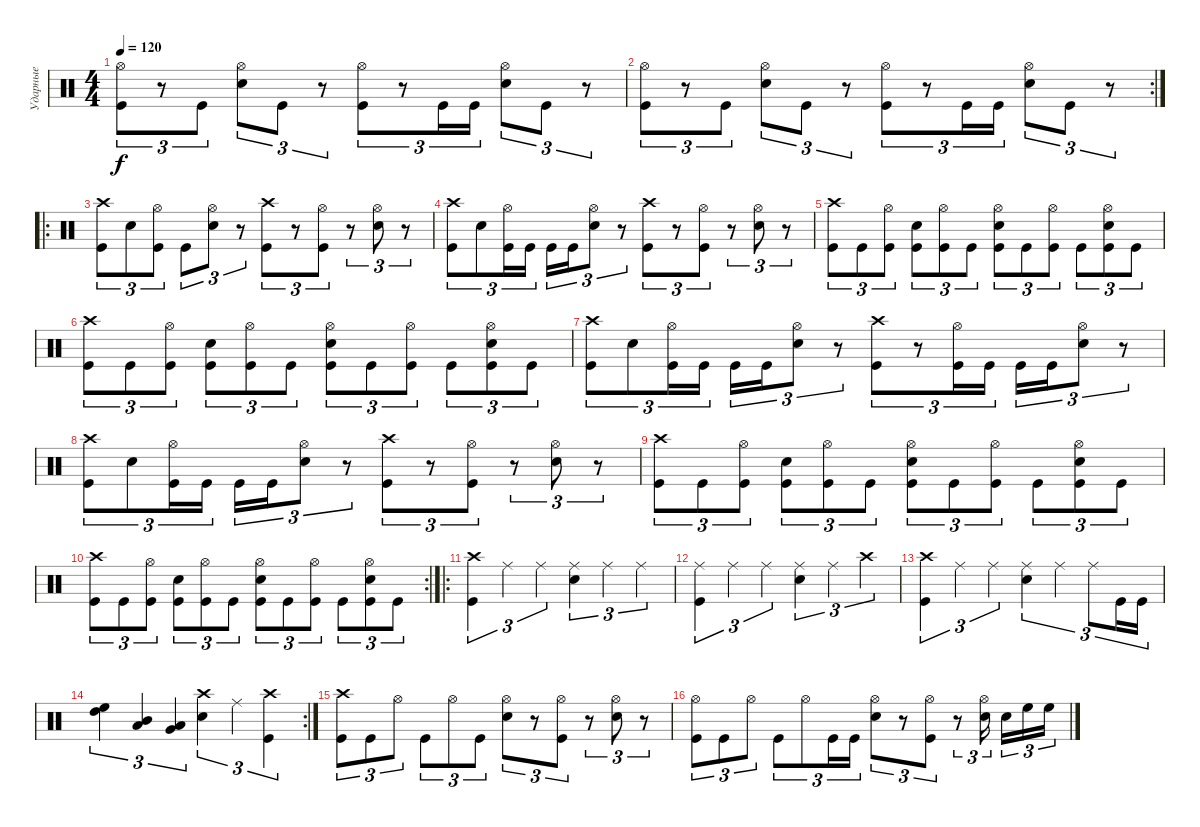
\track ("Ударные" "Ударные") {instrument percussion}
\staff {score}
\articulation defaults
\ts (4 4)
\tempo 120
\clef neutral
\ks c
("Hi-Hat (open)" "Kick (hit)").8{tu (3 2) dy f} r.8{tu (3 2)} "Kick (hit)".8{tu (3 2)} ("Hi-Hat (open)" "Snare (hit) 2").8{tu (3 2)} "Kick (hit)".8{tu (3 2)} r.8{tu (3 2)} ("Hi-Hat (open)" "Kick (hit)").8{tu (3 2)} r.8{tu (3 2)} "Kick (hit)".16{tu (3 2)} "Kick (hit)".16{tu (3 2)} ("Hi-Hat (open)" "Snare (hit) 2").8{tu (3 2)} "Kick (hit)".8{tu (3 2)} r.8{tu (3 2)} |
\rc 2
("Hi-Hat (open)" "Kick (hit)").8{tu (3 2)} r.8{tu (3 2)} "Kick (hit)".8{tu (3 2)} ("Hi-Hat (open)" "Snare (hit) 2").8{tu (3 2)} "Kick (hit)".8{tu (3 2)} r.8{tu (3 2)} ("Hi-Hat (open)" "Kick (hit)").8{tu (3 2)} r.8{tu (3 2)} "Kick (hit)".16{tu (3 2)} "Kick (hit)".16{tu (3 2)} ("Hi-Hat (open)" "Snare (hit) 2").8{tu (3 2)} "Kick (hit)".8{tu (3 2)} r.8{tu (3 2)} |
\ro
("Crash high (hit)" "Kick (hit)").8{tu (3 2)} "Snare (hit) 2".8{tu (3 2)} ("Hi-Hat (open)" "Kick (hit)").8{tu (3 2)} "Kick (hit)".8{tu (3 2)} ("Hi-Hat (open)" "Snare (hit) 2").8{tu (3 2)} r.8{tu (3 2)} ("Crash high (hit)" "Kick (hit)").8{tu (3 2)} r.8{tu (3 2)} ("Hi-Hat (open)" "Kick (hit)").8{tu (3 2)} r.8{tu (3 2)} ("Hi-Hat (open)" "Snare (hit) 2").8{tu (3 2)} r.8{tu (3 2)} |
("Crash high (hit)" "Kick (hit)").8{tu (3 2)} "Snare (hit) 2".8{tu (3 2)} ("Hi-Hat (open)" "Kick (hit)").16{tu (3 2)} "Kick (hit)".16{tu (3 2)} "Kick (hit)".16{tu (3 2)} "Kick (hit)".16{tu (3 2)} ("Hi-Hat (open)" "Snare (hit) 2").8{tu (3 2)} r.8{tu (3 2)} ("Crash high (hit)" "Kick (hit)").8{tu (3 2)} r.8{tu (3 2)} ("Hi-Hat (open)" "Kick (hit)").8{tu (3 2)} r.8{tu (3 2)} ("Hi-Hat (open)" "Snare (hit) 2").8{tu (3 2)} r.8{tu (3 2)} |
("Crash high (hit)" "Kick (hit)").8{tu (3 2)} "Kick (hit)".8{tu (3 2)} ("Hi-Hat (open)" "Kick (hit)").8{tu (3 2)} ("Snare (hit) 2" "Kick (hit)").8{tu (3 2)} ("Hi-Hat (open)" "Kick (hit)").8{tu (3 2)} "Kick (hit)".8{tu (3 2)} ("Hi-Hat (open)" "Snare (hit) 2" "Kick (hit)").8{tu (3 2)} "Kick (hit)".8{tu (3 2)} ("Hi-Hat (open)" "Kick (hit)").8{tu (3 2)} "Kick (hit)".8{tu (3 2)} ("Hi-Hat (open)" "Snare (hit) 2" "Kick (hit)").8{tu (3 2)} "Kick (hit)".8{tu (3 2)} |
("Crash high (hit)" "Kick (hit)").8{tu (3 2)} "Kick (hit)".8{tu (3 2)} ("Hi-Hat (open)" "Kick (hit)").8{tu (3 2)} ("Snare (hit) 2" "Kick (hit)").8{tu (3 2)} ("Hi-Hat (open)" "Kick (hit)").8{tu (3 2)} "Kick (hit)".8{tu (3 2)} ("Hi-Hat (open)" "Snare (hit) 2" "Kick (hit)").8{tu (3 2)} "Kick (hit)".8{tu (3 2)} ("Hi-Hat (open)" "Kick (hit)").8{tu (3 2)} "Kick (hit)".8{tu (3 2)} ("Hi-Hat (open)" "Snare (hit) 2" "Kick (hit)").8{tu (3 2)} "Kick (hit)".8{tu (3 2)} |
("Crash high (hit)" "Kick (hit)").8{tu (3 2)} "Snare (hit) 2".8{tu (3 2)} ("Hi-Hat (open)" "Kick (hit)").16{tu (3 2)} "Kick (hit)".16{tu (3 2)} "Kick (hit)".16{tu (3 2)} "Kick (hit)".16{tu (3 2)} ("Hi-Hat (open)" "Snare (hit) 2").8{tu (3 2)} r.8{tu (3 2)} ("Crash high (hit)" "Kick (hit)").8{tu (3 2)} r.8{tu (3 2)} ("Hi-Hat (open)" "Kick (hit)").16{tu (3 2)} "Kick (hit)".16{tu (3 2)} "Kick (hit)".16{tu (3 2)} "Kick (hit)".16{tu (3 2)} ("Hi-Hat (open)" "Snare (hit) 2").8{tu (3 2)} r.8{tu (3 2)} |
("Crash high (hit)" "Kick (hit)").8{tu (3 2)} "Snare (hit) 2".8{tu (3 2)} ("Hi-Hat (open)" "Kick (hit)").16{tu (3 2)} "Kick (hit)".16{tu (3 2)} "Kick (hit)".16{tu (3 2)} "Kick (hit)".16{tu (3 2)} ("Hi-Hat (open)" "Snare (hit) 2").8{tu (3 2)} r.8{tu (3 2)} ("Crash high (hit)" "Kick (hit)").8{tu (3 2)} r.8{tu (3 2)} ("Hi-Hat (open)" "Kick (hit)").8{tu (3 2)} r.8{tu (3 2)} ("Hi-Hat (open)" "Snare (hit) 2").8{tu (3 2)} r.8{tu (3 2)} |
("Crash high (hit)" "Kick (hit)").8{tu (3 2)} "Kick (hit)".8{tu (3 2)} ("Hi-Hat (open)" "Kick (hit)").8{tu (3 2)} ("Snare (hit) 2" "Kick (hit)").8{tu (3 2)} ("Hi-Hat (open)" "Kick (hit)").8{tu (3 2)} "Kick (hit)".8{tu (3 2)} ("Hi-Hat (open)" "Snare (hit) 2" "Kick (hit)").8{tu (3 2)} "Kick (hit)".8{tu (3 2)} ("Hi-Hat (open)" "Kick (hit)").8{tu (3 2)} "Kick (hit)".8{tu (3 2)} ("Hi-Hat (open)" "Snare (hit) 2" "Kick (hit)").8{tu (3 2)} "Kick (hit)".8{tu (3 2)} |
\rc 2
("Crash high (hit)" "Kick (hit)").8{tu (3 2)} "Kick (hit)".8{tu (3 2)} ("Hi-Hat (open)" "Kick (hit)").8{tu (3 2)} ("Snare (hit) 2" "Kick (hit)").8{tu (3 2)} ("Hi-Hat (open)" "Kick (hit)").8{tu (3 2)} "Kick (hit)".8{tu (3 2)} ("Hi-Hat (open)" "Snare (hit) 2" "Kick (hit)").8{tu (3 2)} "Kick (hit)".8{tu (3 2)} ("Hi-Hat (open)" "Kick (hit)").8{tu (3 2)} "Kick (hit)".8{tu (3 2)} ("Hi-Hat (open)" "Snare (hit) 2" "Kick (hit)").8{tu (3 2)} "Kick (hit)".8{tu (3 2)} |
\ro
("Crash high (hit)" "Kick (hit)").4{tu (3 2)} "Ride (middle)".4{tu (3 2)} "Ride (middle)".4{tu (3 2)} ("Ride (middle)" "Snare (hit) 2").4{tu (3 2)} "Ride (middle)".4{tu (3 2)} "Ride (middle)".4{tu (3 2)} |
("Ride (middle)" "Kick (hit)").4{tu (3 2)} "Ride (middle)".4{tu (3 2)} "Ride (middle)".4{tu (3 2)} ("Ride (middle)" "Snare (hit) 2").4{tu (3 2)} "Ride (middle)".4{tu (3 2)} "Crash high (hit)".4{tu (3 2)} |
("Crash high (hit)" "Kick (hit)").4{tu (3 2)} "Ride (middle)".4{tu (3 2)} "Ride (middle)".4{tu (3 2)} ("Ride (middle)" "Snare (hit) 2").4{tu (3 2)} "Ride (middle)".4{tu (3 2)} "Ride (middle)".8{tu (3 2)} "Kick (hit)".16{tu (3 2)} "Kick (hit)".16{tu (3 2)} |
\rc 2
("High Floor Tom (hit)" "High Tom (hit)").4{tu (3 2)} ("Low Tom (hit)" "Mid Tom (hit)").4{tu (3 2)} ("Very Low Tom (hit)" "Low Floor Tom (hit)").4{tu (3 2)} ("Crash high (hit)" "Snare (hit) 2").4{tu (3 2)} "Ride (middle)".4{tu (3 2)} ("Crash high (hit)" "Kick (hit)").4{tu (3 2)} |
("Crash high (hit)" "Kick (hit)").8{tu (3 2)} "Kick (hit)".8{tu (3 2)} "Hi-Hat (open)".8{tu (3 2)} "Kick (hit)".8{tu (3 2)} "Hi-Hat (open)".8{tu (3 2)} "Kick (hit)".8{tu (3 2)} ("Hi-Hat (open)" "Snare (hit) 2").8{tu (3 2)} r.8{tu (3 2)} ("Hi-Hat (open)" "Kick (hit)").8{tu (3 2)} r.8{tu (3 2)} ("Hi-Hat (open)" "Snare (hit) 2").8{tu (3 2)} r.8{tu (3 2)} |
("Hi-Hat (open)" "Kick (hit)").8{tu (3 2)} "Kick (hit)".8{tu (3 2)} "Hi-Hat (open)".8{tu (3 2)} "Kick (hit)".8{tu (3 2)} "Hi-Hat (open)".8{tu (3 2)} "Kick (hit)".16{tu (3 2)} "Kick (hit)".16{tu (3 2)} ("Hi-Hat (open)" "Snare (hit) 2").8{tu (3 2)} r.8{tu (3 2)} ("Hi-Hat (open)" "Kick (hit)").8{tu (3 2)} r.8{tu (3 2)} ("Hi-Hat (open)" "Snare (hit) 2").16{tu (3 2) beam splitsecondary} "Snare (hit) 2".16{tu (3 2)} "High Floor Tom (hit)".16{tu (3 2)} "High Floor Tom (hit)".16{tu (3 2)}
